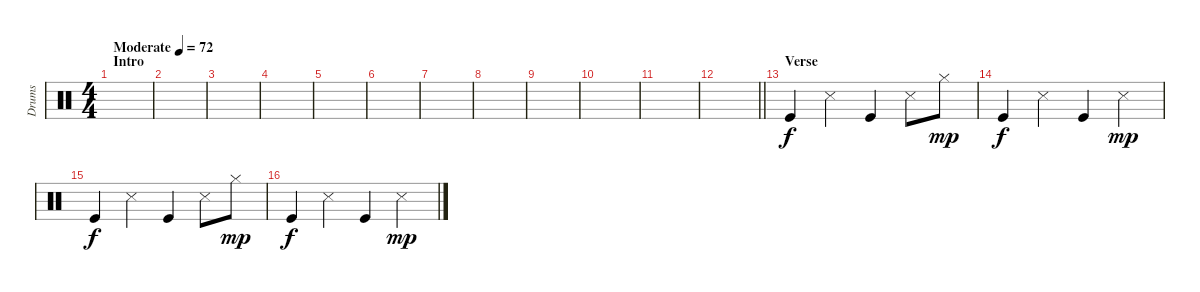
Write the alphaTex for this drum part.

\track ("Drums" "Drums") {instrument percussion}
\staff {score}
\articulation defaults
\ts (4 4)
\section ("" "Intro")
\tempo (72 "Moderate")
\clef neutral
\ks c
|
|
|
|
|
|
|
|
|
|
|
\barLineRight lightlight
|
\section ("" "Verse")
"Kick (hit)".4 "Snare (side stick) 3".4 "Kick (hit)".4 "Snare (side stick) 3".8 "Hi-Hat (closed)".8{dy mp} |
"Kick (hit)".4{dy f} "Snare (side stick) 3".4 "Kick (hit)".4 "Snare (side stick) 3".4{dy mp} |
"Kick (hit)".4{dy f} "Snare (side stick) 3".4 "Kick (hit)".4 "Snare (side stick) 3".8 "Hi-Hat (closed)".8{dy mp} |
"Kick (hit)".4{dy f} "Snare (side stick) 3".4 "Kick (hit)".4 "Snare (side stick) 3".4{dy mp}
